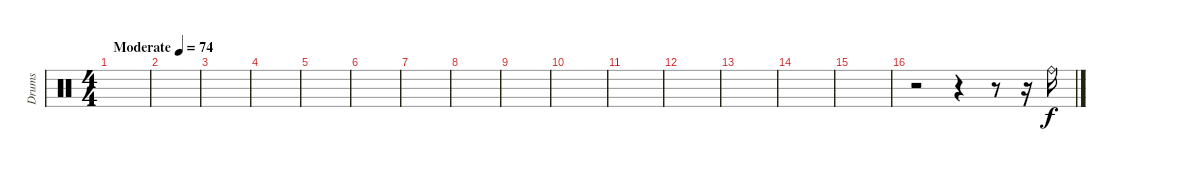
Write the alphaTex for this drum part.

\track ("Drums" "Drums") {instrument percussion}
\staff {score}
\articulation defaults
\ts (4 4)
\tempo (74 "Moderate")
\clef neutral
\ks c
|
|
|
|
|
|
|
|
|
|
|
|
|
|
|
r.2 r.4 r.8 r.16 "Ride (bell)".16
